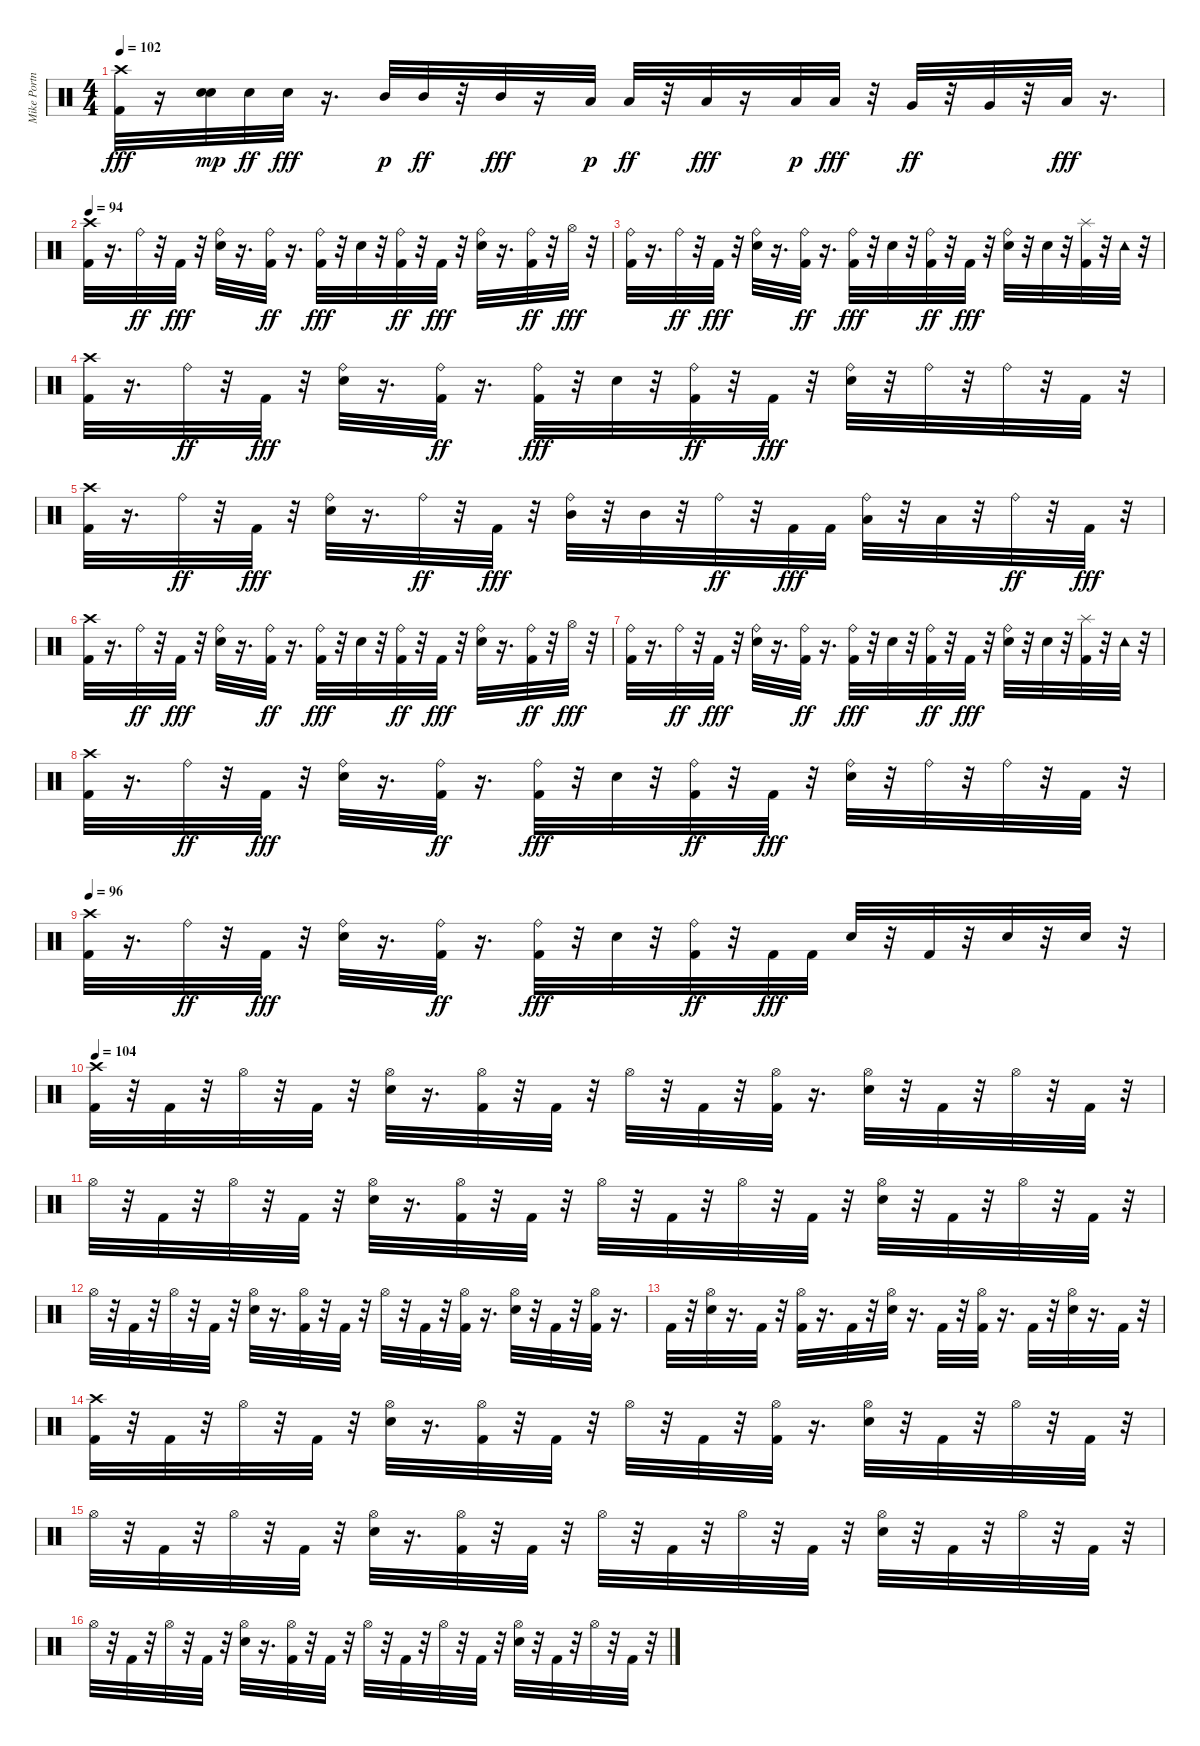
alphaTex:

\track ("Mike Portnoy" "Mike Portn") {instrument percussion}
\staff {score}
\articulation defaults
\ts (4 4)
\tempo 102
\clef neutral
\ks c
("Kick (hit) 2" "Crash high (hit)").32{dy fff} r.16 ("Snare (hit) 2" "Snare (hit) 2").32{dy mp} "Snare (hit) 2".32{dy ff} "Snare (hit) 2".32{dy fff} r.16{d} "Mid Tom (hit)".32{dy p} "Mid Tom (hit)".32{dy ff} r.32 "Mid Tom (hit)".32{dy fff} r.16 "Low Tom (hit)".32{dy p} "Low Tom (hit)".32{dy ff} r.32 "Low Tom (hit)".32{dy fff} r.16 "Low Tom (hit)".32{dy p} "Low Tom (hit)".32{dy fff} r.32 "Very Low Tom (hit)".32{dy ff} r.32 "Very Low Tom (hit)".32 r.32 "Low Floor Tom (hit)".32{dy fff} r.16{d} |
\tempo 94
("Kick (hit) 2" "Crash high (hit)").32 r.16{d} "Ride (bell)".32{dy ff} r.32 "Kick (hit) 2".32{dy fff} r.32 ("Ride (bell)" "Snare (hit) 2").32 r.16{d} ("Kick (hit) 2" "Ride (bell)").32{dy ff} r.16{d} ("Kick (hit) 2" "Ride (bell)").32{dy fff} r.32 "Snare (hit) 2".32 r.32 ("Kick (hit) 2" "Ride (bell)").32{dy ff} r.32 "Kick (hit) 2".32{dy fff} r.32 ("Ride (bell)" "Snare (hit) 2").32 r.16{d} ("Kick (hit) 2" "Ride (bell)").32{dy ff} r.32 "Hi-Hat (open)".32{dy fff} r.32 |
("Kick (hit) 2" "Ride (bell)").32 r.16{d} "Ride (bell)".32{dy ff} r.32 "Kick (hit) 2".32{dy fff} r.32 ("Ride (bell)" "Snare (hit) 2").32 r.16{d} ("Kick (hit) 2" "Ride (bell)").32{dy ff} r.16{d} ("Kick (hit) 2" "Ride (bell)").32{dy fff} r.32 "Snare (hit) 2".32 r.32 ("Kick (hit) 2" "Ride (bell)").32{dy ff} r.32 "Kick (hit) 2".32{dy fff} r.32 ("Ride (bell)" "Snare (hit) 2").32 r.32 "Snare (hit) 2".32 r.32 ("Kick (hit) 2" "Splash (hit)").32 r.32 "Tambourine (hit)".32 r.32 |
("Kick (hit) 2" "Crash high (hit)").32 r.16{d} "Ride (bell)".32{dy ff} r.32 "Kick (hit) 2".32{dy fff} r.32 ("Ride (bell)" "Snare (hit) 2").32 r.16{d} ("Kick (hit) 2" "Ride (bell)").32{dy ff} r.16{d} ("Kick (hit) 2" "Ride (bell)").32{dy fff} r.32 "Snare (hit) 2".32 r.32 ("Kick (hit) 2" "Ride (bell)").32{dy ff} r.32 "Kick (hit) 2".32{dy fff} r.32 ("Ride (bell)" "Snare (hit) 2").32 r.32 "Ride (bell)".32 r.32 "Ride (bell)".32 r.32 "Kick (hit) 2".32 r.32 |
("Kick (hit) 2" "Crash high (hit)").32 r.16{d} "Ride (bell)".32{dy ff} r.32 "Kick (hit) 2".32{dy fff} r.32 ("Ride (bell)" "Snare (hit) 2").32 r.16{d} "Ride (bell)".32{dy ff} r.32 "Kick (hit) 2".32{dy fff} r.32 ("Ride (bell)" "Mid Tom (hit)").32 r.32 "Mid Tom (hit)".32 r.32 "Ride (bell)".32{dy ff} r.32 "Kick (hit) 2".32{dy fff} "Kick (hit) 2".32 ("Ride (bell)" "Low Tom (hit)").32 r.32 "Low Tom (hit)".32 r.32 "Ride (bell)".32{dy ff} r.32 "Kick (hit) 2".32{dy fff} r.32 |
("Kick (hit) 2" "Crash high (hit)").32 r.16{d} "Ride (bell)".32{dy ff} r.32 "Kick (hit) 2".32{dy fff} r.32 ("Ride (bell)" "Snare (hit) 2").32 r.16{d} ("Kick (hit) 2" "Ride (bell)").32{dy ff} r.16{d} ("Kick (hit) 2" "Ride (bell)").32{dy fff} r.32 "Snare (hit) 2".32 r.32 ("Kick (hit) 2" "Ride (bell)").32{dy ff} r.32 "Kick (hit) 2".32{dy fff} r.32 ("Ride (bell)" "Snare (hit) 2").32 r.16{d} ("Kick (hit) 2" "Ride (bell)").32{dy ff} r.32 "Hi-Hat (open)".32{dy fff} r.32 |
("Kick (hit) 2" "Ride (bell)").32 r.16{d} "Ride (bell)".32{dy ff} r.32 "Kick (hit) 2".32{dy fff} r.32 ("Ride (bell)" "Snare (hit) 2").32 r.16{d} ("Kick (hit) 2" "Ride (bell)").32{dy ff} r.16{d} ("Kick (hit) 2" "Ride (bell)").32{dy fff} r.32 "Snare (hit) 2".32 r.32 ("Kick (hit) 2" "Ride (bell)").32{dy ff} r.32 "Kick (hit) 2".32{dy fff} r.32 ("Ride (bell)" "Snare (hit) 2").32 r.32 "Snare (hit) 2".32 r.32 ("Kick (hit) 2" "Splash (hit)").32 r.32 "Tambourine (hit)".32 r.32 |
("Kick (hit) 2" "Crash high (hit)").32 r.16{d} "Ride (bell)".32{dy ff} r.32 "Kick (hit) 2".32{dy fff} r.32 ("Ride (bell)" "Snare (hit) 2").32 r.16{d} ("Kick (hit) 2" "Ride (bell)").32{dy ff} r.16{d} ("Kick (hit) 2" "Ride (bell)").32{dy fff} r.32 "Snare (hit) 2".32 r.32 ("Kick (hit) 2" "Ride (bell)").32{dy ff} r.32 "Kick (hit) 2".32{dy fff} r.32 ("Ride (bell)" "Snare (hit) 2").32 r.32 "Ride (bell)".32 r.32 "Ride (bell)".32 r.32 "Kick (hit) 2".32 r.32 |
\tempo 96
("Kick (hit) 2" "Crash high (hit)").32 r.16{d} "Ride (bell)".32{dy ff} r.32 "Kick (hit) 2".32{dy fff} r.32 ("Ride (bell)" "Snare (hit) 2").32 r.16{d} ("Kick (hit) 2" "Ride (bell)").32{dy ff} r.16{d} ("Kick (hit) 2" "Ride (bell)").32{dy fff} r.32 "Snare (hit) 2".32 r.32 ("Kick (hit) 2" "Ride (bell)").32{dy ff} r.32 "Kick (hit) 2".32{dy fff} "Kick (hit) 2".32 "Snare (hit) 2".32 r.32 "Kick (hit) 2".32 r.32 "Snare (hit) 2".32 r.32 "Snare (hit) 2".32 r.32 |
\tempo 104
("Kick (hit) 2" "Crash high (hit)").32 r.32 "Kick (hit) 2".32 r.32 "Hi-Hat (open)".32 r.32 "Kick (hit) 2".32 r.32 ("Snare (hit) 2" "Hi-Hat (open)").32 r.16{d} ("Kick (hit) 2" "Hi-Hat (open)").32 r.32 "Kick (hit) 2".32 r.32 "Hi-Hat (open)".32 r.32 "Kick (hit) 2".32 r.32 ("Kick (hit) 2" "Hi-Hat (open)").32 r.16{d} ("Snare (hit) 2" "Hi-Hat (open)").32 r.32 "Kick (hit) 2".32 r.32 "Hi-Hat (open)".32 r.32 "Kick (hit) 2".32 r.32 |
"Hi-Hat (open)".32 r.32 "Kick (hit) 2".32 r.32 "Hi-Hat (open)".32 r.32 "Kick (hit) 2".32 r.32 ("Snare (hit) 2" "Hi-Hat (open)").32 r.16{d} ("Kick (hit) 2" "Hi-Hat (open)").32 r.32 "Kick (hit) 2".32 r.32 "Hi-Hat (open)".32 r.32 "Kick (hit) 2".32 r.32 "Hi-Hat (open)".32 r.32 "Kick (hit) 2".32 r.32 ("Snare (hit) 2" "Hi-Hat (open)").32 r.32 "Kick (hit) 2".32 r.32 "Hi-Hat (open)".32 r.32 "Kick (hit) 2".32 r.32 |
"Hi-Hat (open)".32 r.32 "Kick (hit) 2".32 r.32 "Hi-Hat (open)".32 r.32 "Kick (hit) 2".32 r.32 ("Snare (hit) 2" "Hi-Hat (open)").32 r.16{d} ("Kick (hit) 2" "Hi-Hat (open)").32 r.32 "Kick (hit) 2".32 r.32 "Hi-Hat (open)".32 r.32 "Kick (hit) 2".32 r.32 ("Kick (hit) 2" "Hi-Hat (open)").32 r.16{d} ("Snare (hit) 2" "Hi-Hat (open)").32 r.32 "Kick (hit) 2".32 r.32 ("Kick (hit) 2" "Hi-Hat (open)").32 r.16{d} |
"Kick (hit) 2".32 r.32 ("Snare (hit) 2" "Hi-Hat (open)").32 r.16{d} "Kick (hit) 2".32 r.32 ("Kick (hit) 2" "Hi-Hat (open)").32 r.16{d} "Kick (hit) 2".32 r.32 ("Snare (hit) 2" "Hi-Hat (open)").32 r.16{d} "Kick (hit) 2".32 r.32 ("Kick (hit) 2" "Hi-Hat (open)").32 r.16{d} "Kick (hit) 2".32 r.32 ("Snare (hit) 2" "Hi-Hat (open)").32 r.16{d} "Kick (hit) 2".32 r.32 |
("Kick (hit) 2" "Crash high (hit)").32 r.32 "Kick (hit) 2".32 r.32 "Hi-Hat (open)".32 r.32 "Kick (hit) 2".32 r.32 ("Snare (hit) 2" "Hi-Hat (open)").32 r.16{d} ("Kick (hit) 2" "Hi-Hat (open)").32 r.32 "Kick (hit) 2".32 r.32 "Hi-Hat (open)".32 r.32 "Kick (hit) 2".32 r.32 ("Kick (hit) 2" "Hi-Hat (open)").32 r.16{d} ("Snare (hit) 2" "Hi-Hat (open)").32 r.32 "Kick (hit) 2".32 r.32 "Hi-Hat (open)".32 r.32 "Kick (hit) 2".32 r.32 |
"Hi-Hat (open)".32 r.32 "Kick (hit) 2".32 r.32 "Hi-Hat (open)".32 r.32 "Kick (hit) 2".32 r.32 ("Snare (hit) 2" "Hi-Hat (open)").32 r.16{d} ("Kick (hit) 2" "Hi-Hat (open)").32 r.32 "Kick (hit) 2".32 r.32 "Hi-Hat (open)".32 r.32 "Kick (hit) 2".32 r.32 "Hi-Hat (open)".32 r.32 "Kick (hit) 2".32 r.32 ("Snare (hit) 2" "Hi-Hat (open)").32 r.32 "Kick (hit) 2".32 r.32 "Hi-Hat (open)".32 r.32 "Kick (hit) 2".32 r.32 |
"Hi-Hat (open)".32 r.32 "Kick (hit) 2".32 r.32 "Hi-Hat (open)".32 r.32 "Kick (hit) 2".32 r.32 ("Snare (hit) 2" "Hi-Hat (open)").32 r.16{d} ("Kick (hit) 2" "Hi-Hat (open)").32 r.32 "Kick (hit) 2".32 r.32 "Hi-Hat (open)".32 r.32 "Kick (hit) 2".32 r.32 "Hi-Hat (open)".32 r.32 "Kick (hit) 2".32 r.32 ("Snare (hit) 2" "Hi-Hat (open)").32 r.32 "Kick (hit) 2".32 r.32 "Hi-Hat (open)".32 r.32 "Kick (hit) 2".32 r.32
